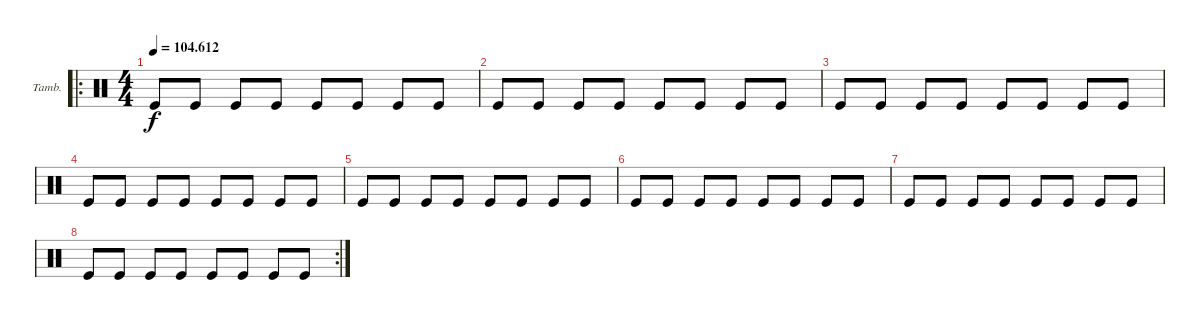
\defaultSystemsLayout 4
\bracketExtendMode groupsimilarinstruments
\firstSystemTrackNameOrientation horizontal
\otherSystemsTrackNameOrientation horizontal
\track ("Tambourine" "Tamb.") {instrument percussion}
\staff {score}
\articulation defaults
\ro
\ts (4 4)
\tempo
104.612
\accidentals auto
\clef neutral
\ottava regular
\simile none
\scale
0.365079
\ks c "Kick (hit)".8{dy f} "Kick (hit)".8 "Kick (hit)".8 "Kick (hit)".8 "Kick (hit)".8 "Kick (hit)".8 "Kick (hit)".8 "Kick (hit)".8
|
\scale
0.301587 "Kick (hit)".8 "Kick (hit)".8 "Kick (hit)".8 "Kick (hit)".8 "Kick (hit)".8 "Kick (hit)".8 "Kick (hit)".8 "Kick (hit)".8 |
\scale
0.333333 "Kick (hit)".8 "Kick (hit)".8 "Kick (hit)".8 "Kick (hit)".8 "Kick (hit)".8 "Kick (hit)".8 "Kick (hit)".8 "Kick (hit)".8 |
\scale
0.333333 "Kick (hit)".8 "Kick (hit)".8 "Kick (hit)".8 "Kick (hit)".8 "Kick (hit)".8 "Kick (hit)".8 "Kick (hit)".8 "Kick (hit)".8 |
\scale
0.333333 "Kick (hit)".8 "Kick (hit)".8 "Kick (hit)".8 "Kick (hit)".8 "Kick (hit)".8 "Kick (hit)".8 "Kick (hit)".8 "Kick (hit)".8 |
\scale
0.322034 "Kick (hit)".8 "Kick (hit)".8 "Kick (hit)".8 "Kick (hit)".8 "Kick (hit)".8 "Kick (hit)".8 "Kick (hit)".8 "Kick (hit)".8 |
\scale
0.322034 "Kick (hit)".8 "Kick (hit)".8 "Kick (hit)".8 "Kick (hit)".8 "Kick (hit)".8 "Kick (hit)".8 "Kick (hit)".8 "Kick (hit)".8 |
\rc 2
\scale
0.355932 "Kick (hit)".8 "Kick (hit)".8 "Kick (hit)".8 "Kick (hit)".8 "Kick (hit)".8 "Kick (hit)".8 "Kick (hit)".8 "Kick (hit)".8 |
\scale
0.333333 |
\scale
0.333333 |
\scale
0.333333 |
\scale
0.333333 |
\scale
0.333333 |
\scale
0.333333 |
\scale
0.333333 |
\scale
0.333333
